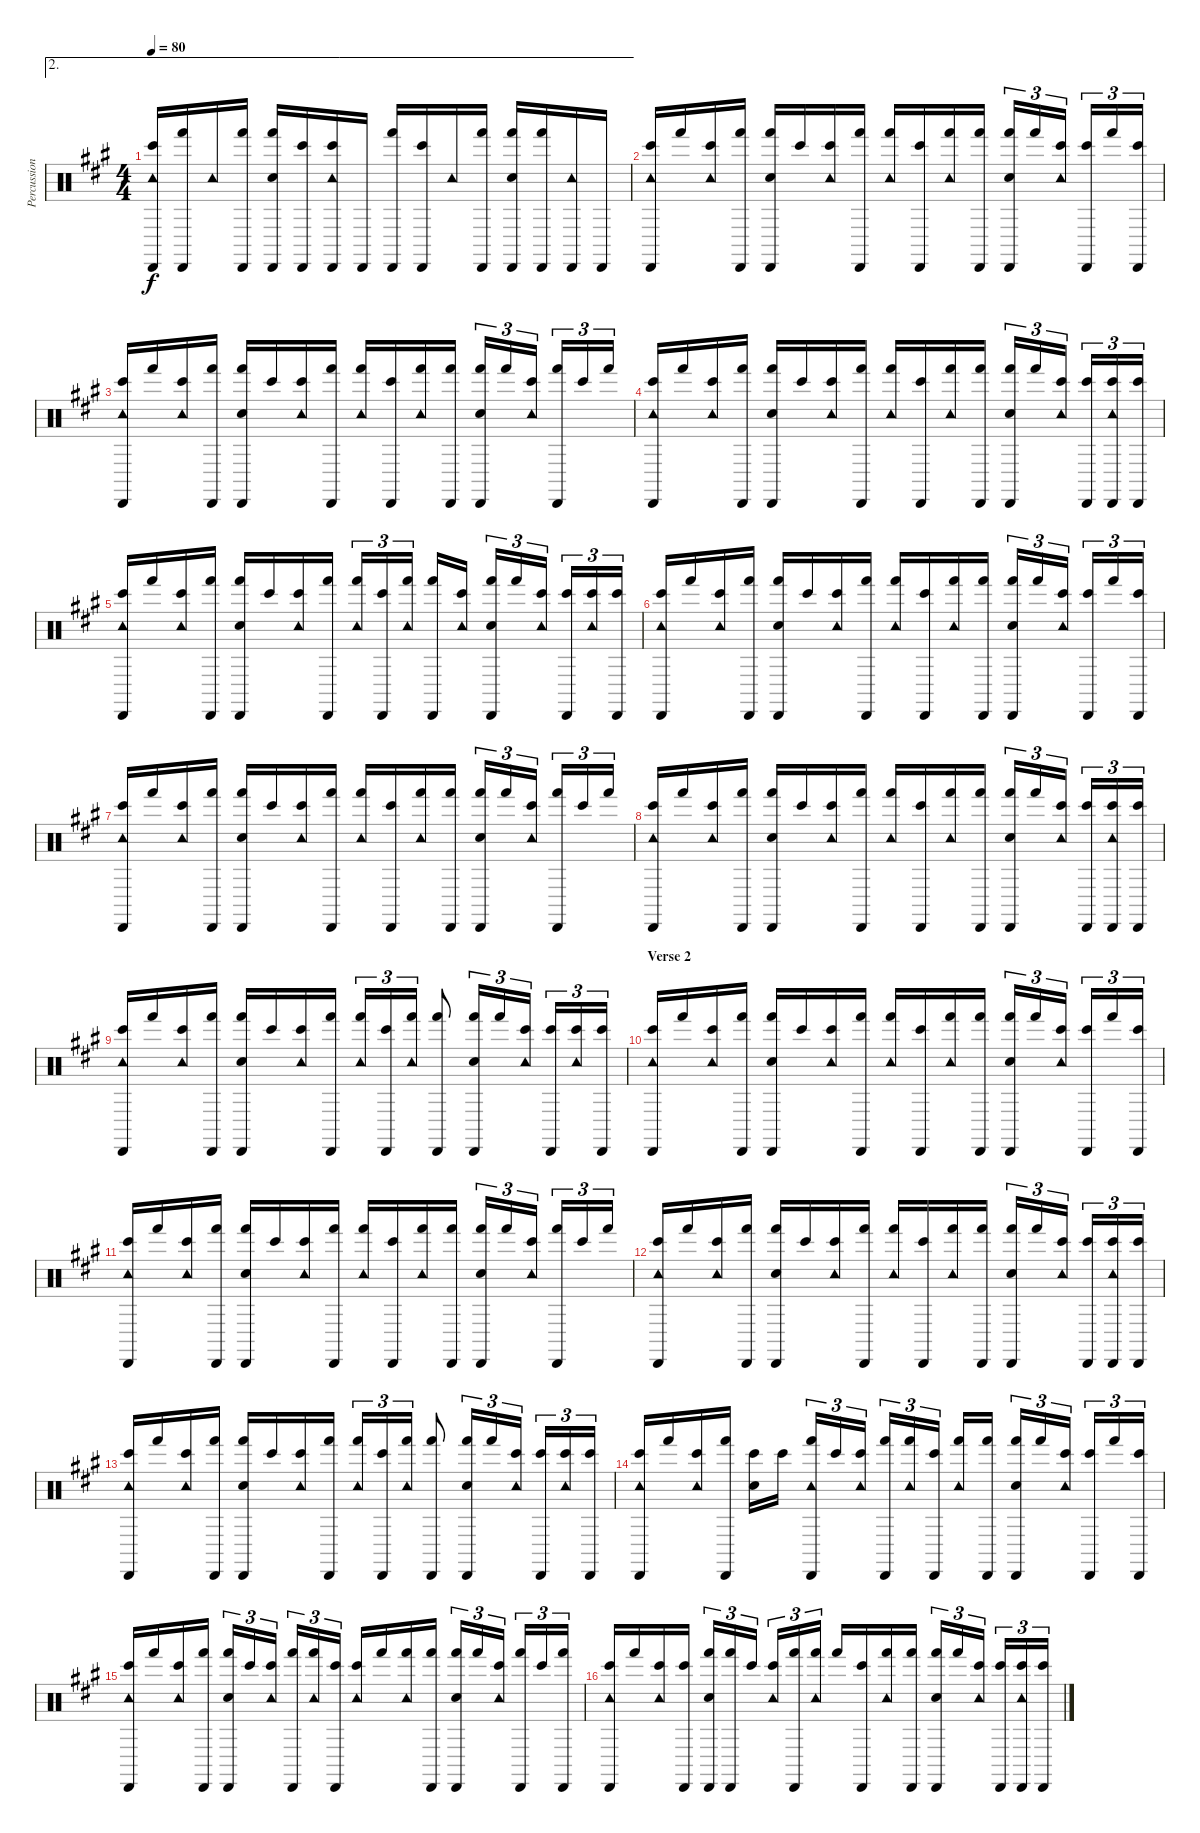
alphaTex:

\track ("Percussion" "Percussion") {instrument percussion}
\staff {score}
\articulation defaults
\ae 2
\ts (4 4)
\tempo 80
\clef neutral
\ks a
("Cabasa (hit)" "Tambourine (hit)" "Bongo High (hit)").16{dy f} ("Cabasa (hit)" "Hand (hit)").16 "Tambourine (hit)".16 ("Cabasa (hit)" "Hand (hit)").16 ("Cabasa (hit)" "Hand Clap (hit)" "Hand (hit)").16 ("Cabasa (hit)" "Bongo High (hit)").16 ("Cabasa (hit)" "Tambourine (hit)" "Bongo High (hit)").16 "Cabasa (hit)".16 ("Cabasa (hit)" "Hand (hit)").16 ("Cabasa (hit)" "Bongo High (hit)").16 "Tambourine (hit)".16 ("Cabasa (hit)" "Hand (hit)").16 ("Cabasa (hit)" "Hand Clap (hit)" "Hand (hit)").16 ("Cabasa (hit)" "Hand (hit)").16 ("Cabasa (hit)" "Tambourine (hit)").16 "Cabasa (hit)".16 |
("Cabasa (hit)" "Tambourine (hit)" "Bongo High (hit)").16 "Hand (hit)".16 ("Tambourine (hit)" "Bongo High (hit)").16 ("Cabasa (hit)" "Hand (hit)").16 ("Cabasa (hit)" "Hand Clap (hit)" "Hand (hit)").16 "Bongo High (hit)".16 ("Tambourine (hit)" "Bongo High (hit)").16 ("Cabasa (hit)" "Hand (hit)").16 ("Tambourine (hit)" "Hand (hit)").16 ("Cabasa (hit)" "Bongo High (hit)").16 ("Tambourine (hit)" "Hand (hit)").16 ("Cabasa (hit)" "Hand (hit)").16 ("Cabasa (hit)" "Hand Clap (hit)" "Hand (hit)").16{tu (3 2)} "Hand (hit)".16{tu (3 2)} ("Tambourine (hit)" "Bongo High (hit)").16{tu (3 2)} ("Cabasa (hit)" "Bongo High (hit)").16{tu (3 2)} "Hand (hit)".16{tu (3 2)} ("Cabasa (hit)" "Bongo High (hit)").16{tu (3 2)} |
("Cabasa (hit)" "Tambourine (hit)" "Bongo High (hit)").16 "Hand (hit)".16 ("Tambourine (hit)" "Bongo High (hit)").16 ("Cabasa (hit)" "Hand (hit)").16 ("Cabasa (hit)" "Hand Clap (hit)" "Hand (hit)").16 "Bongo High (hit)".16 ("Tambourine (hit)" "Bongo High (hit)").16 ("Cabasa (hit)" "Hand (hit)").16 ("Tambourine (hit)" "Hand (hit)").16 ("Cabasa (hit)" "Bongo High (hit)").16 ("Tambourine (hit)" "Hand (hit)").16 ("Cabasa (hit)" "Hand (hit)").16 ("Cabasa (hit)" "Hand Clap (hit)" "Hand (hit)").16{tu (3 2)} "Hand (hit)".16{tu (3 2)} ("Tambourine (hit)" "Bongo High (hit)").16{tu (3 2)} ("Cabasa (hit)" "Hand (hit)").16{tu (3 2)} "Bongo High (hit)".16{tu (3 2)} "Hand (hit)".16{tu (3 2)} |
("Cabasa (hit)" "Tambourine (hit)" "Bongo High (hit)").16 "Hand (hit)".16 ("Tambourine (hit)" "Bongo High (hit)").16 ("Cabasa (hit)" "Hand (hit)").16 ("Cabasa (hit)" "Hand Clap (hit)" "Hand (hit)").16 "Bongo High (hit)".16 ("Tambourine (hit)" "Bongo High (hit)").16 ("Cabasa (hit)" "Hand (hit)").16 ("Tambourine (hit)" "Hand (hit)").16 ("Cabasa (hit)" "Bongo High (hit)").16 ("Tambourine (hit)" "Hand (hit)").16 ("Cabasa (hit)" "Hand (hit)").16 ("Cabasa (hit)" "Hand Clap (hit)" "Hand (hit)").16{tu (3 2)} "Hand (hit)".16{tu (3 2)} ("Tambourine (hit)" "Bongo High (hit)").16{tu (3 2)} ("Cabasa (hit)" "Bongo High (hit)").16{tu (3 2)} ("Cabasa (hit)" "Tambourine (hit)" "Bongo High (hit)").16{tu (3 2)} ("Cabasa (hit)" "Bongo High (hit)").16{tu (3 2)} |
("Cabasa (hit)" "Tambourine (hit)" "Bongo High (hit)").16 "Hand (hit)".16 ("Tambourine (hit)" "Bongo High (hit)").16 ("Cabasa (hit)" "Hand (hit)").16 ("Cabasa (hit)" "Hand Clap (hit)" "Hand (hit)").16 "Bongo High (hit)".16 ("Tambourine (hit)" "Bongo High (hit)").16 ("Cabasa (hit)" "Hand (hit)").16 ("Tambourine (hit)" "Hand (hit)").16{tu (3 2)} ("Cabasa (hit)" "Bongo High (hit)").16{tu (3 2)} ("Tambourine (hit)" "Hand (hit)").16{tu (3 2)} ("Cabasa (hit)" "Hand (hit)").16 ("Tambourine (hit)" "Bongo High (hit)").16 ("Cabasa (hit)" "Hand Clap (hit)" "Hand (hit)").16{tu (3 2)} "Hand (hit)".16{tu (3 2)} ("Tambourine (hit)" "Bongo High (hit)").16{tu (3 2)} ("Cabasa (hit)" "Bongo High (hit)").16{tu (3 2)} ("Tambourine (hit)" "Bongo High (hit)").16{tu (3 2)} ("Cabasa (hit)" "Bongo High (hit)").16{tu (3 2)} |
("Cabasa (hit)" "Tambourine (hit)" "Bongo High (hit)").16 "Hand (hit)".16 ("Tambourine (hit)" "Bongo High (hit)").16 ("Cabasa (hit)" "Hand (hit)").16 ("Cabasa (hit)" "Hand Clap (hit)" "Hand (hit)").16 "Bongo High (hit)".16 ("Tambourine (hit)" "Bongo High (hit)").16 ("Cabasa (hit)" "Hand (hit)").16 ("Tambourine (hit)" "Hand (hit)").16 ("Cabasa (hit)" "Bongo High (hit)").16 ("Tambourine (hit)" "Hand (hit)").16 ("Cabasa (hit)" "Hand (hit)").16 ("Cabasa (hit)" "Hand Clap (hit)" "Hand (hit)").16{tu (3 2)} "Hand (hit)".16{tu (3 2)} ("Tambourine (hit)" "Bongo High (hit)").16{tu (3 2)} ("Cabasa (hit)" "Bongo High (hit)").16{tu (3 2)} "Hand (hit)".16{tu (3 2)} ("Cabasa (hit)" "Bongo High (hit)").16{tu (3 2)} |
("Cabasa (hit)" "Tambourine (hit)" "Bongo High (hit)").16 "Hand (hit)".16 ("Tambourine (hit)" "Bongo High (hit)").16 ("Cabasa (hit)" "Hand (hit)").16 ("Cabasa (hit)" "Hand Clap (hit)" "Hand (hit)").16 "Bongo High (hit)".16 ("Tambourine (hit)" "Bongo High (hit)").16 ("Cabasa (hit)" "Hand (hit)").16 ("Tambourine (hit)" "Hand (hit)").16 ("Cabasa (hit)" "Bongo High (hit)").16 ("Tambourine (hit)" "Hand (hit)").16 ("Cabasa (hit)" "Hand (hit)").16 ("Cabasa (hit)" "Hand Clap (hit)" "Hand (hit)").16{tu (3 2)} "Hand (hit)".16{tu (3 2)} ("Tambourine (hit)" "Bongo High (hit)").16{tu (3 2)} ("Cabasa (hit)" "Hand (hit)").16{tu (3 2)} "Bongo High (hit)".16{tu (3 2)} "Hand (hit)".16{tu (3 2)} |
("Cabasa (hit)" "Tambourine (hit)" "Bongo High (hit)").16 "Hand (hit)".16 ("Tambourine (hit)" "Bongo High (hit)").16 ("Cabasa (hit)" "Hand (hit)").16 ("Cabasa (hit)" "Hand Clap (hit)" "Hand (hit)").16 "Bongo High (hit)".16 ("Tambourine (hit)" "Bongo High (hit)").16 ("Cabasa (hit)" "Hand (hit)").16 ("Tambourine (hit)" "Hand (hit)").16 ("Cabasa (hit)" "Bongo High (hit)").16 ("Tambourine (hit)" "Hand (hit)").16 ("Cabasa (hit)" "Hand (hit)").16 ("Cabasa (hit)" "Hand Clap (hit)" "Hand (hit)").16{tu (3 2)} "Hand (hit)".16{tu (3 2)} ("Tambourine (hit)" "Bongo High (hit)").16{tu (3 2)} ("Cabasa (hit)" "Bongo High (hit)").16{tu (3 2)} ("Cabasa (hit)" "Tambourine (hit)" "Bongo High (hit)").16{tu (3 2)} ("Cabasa (hit)" "Bongo High (hit)").16{tu (3 2)} |
("Cabasa (hit)" "Tambourine (hit)" "Bongo High (hit)").16 "Hand (hit)".16 ("Tambourine (hit)" "Bongo High (hit)").16 ("Cabasa (hit)" "Hand (hit)").16 ("Cabasa (hit)" "Hand Clap (hit)" "Hand (hit)").16 "Bongo High (hit)".16 ("Tambourine (hit)" "Bongo High (hit)").16 ("Cabasa (hit)" "Hand (hit)").16 ("Tambourine (hit)" "Hand (hit)").16{tu (3 2)} ("Cabasa (hit)" "Bongo High (hit)").16{tu (3 2)} ("Tambourine (hit)" "Hand (hit)").16{tu (3 2)} ("Cabasa (hit)" "Hand (hit)").8 ("Cabasa (hit)" "Hand Clap (hit)" "Hand (hit)").16{tu (3 2)} "Hand (hit)".16{tu (3 2)} ("Tambourine (hit)" "Bongo High (hit)").16{tu (3 2)} ("Cabasa (hit)" "Bongo High (hit)").16{tu (3 2)} ("Tambourine (hit)" "Bongo High (hit)").16{tu (3 2)} ("Cabasa (hit)" "Bongo High (hit)").16{tu (3 2)} |
\section ("" "Verse 2")
("Cabasa (hit)" "Tambourine (hit)" "Bongo High (hit)").16 "Hand (hit)".16 ("Tambourine (hit)" "Bongo High (hit)").16 ("Cabasa (hit)" "Hand (hit)").16 ("Cabasa (hit)" "Hand Clap (hit)" "Hand (hit)").16 "Bongo High (hit)".16 ("Tambourine (hit)" "Bongo High (hit)").16 ("Cabasa (hit)" "Hand (hit)").16 ("Tambourine (hit)" "Hand (hit)").16 ("Cabasa (hit)" "Bongo High (hit)").16 ("Tambourine (hit)" "Hand (hit)").16 ("Cabasa (hit)" "Hand (hit)").16 ("Cabasa (hit)" "Hand Clap (hit)" "Hand (hit)").16{tu (3 2)} "Hand (hit)".16{tu (3 2)} ("Tambourine (hit)" "Bongo High (hit)").16{tu (3 2)} ("Cabasa (hit)" "Bongo High (hit)").16{tu (3 2)} "Hand (hit)".16{tu (3 2)} ("Cabasa (hit)" "Bongo High (hit)").16{tu (3 2)} |
("Cabasa (hit)" "Tambourine (hit)" "Bongo High (hit)").16 "Hand (hit)".16 ("Tambourine (hit)" "Bongo High (hit)").16 ("Cabasa (hit)" "Hand (hit)").16 ("Cabasa (hit)" "Hand Clap (hit)" "Hand (hit)").16 "Bongo High (hit)".16 ("Tambourine (hit)" "Bongo High (hit)").16 ("Cabasa (hit)" "Hand (hit)").16 ("Tambourine (hit)" "Hand (hit)").16 ("Cabasa (hit)" "Bongo High (hit)").16 ("Tambourine (hit)" "Hand (hit)").16 ("Cabasa (hit)" "Hand (hit)").16 ("Cabasa (hit)" "Hand Clap (hit)" "Hand (hit)").16{tu (3 2)} "Hand (hit)".16{tu (3 2)} ("Tambourine (hit)" "Bongo High (hit)").16{tu (3 2)} ("Cabasa (hit)" "Hand (hit)").16{tu (3 2)} "Bongo High (hit)".16{tu (3 2)} "Hand (hit)".16{tu (3 2)} |
("Cabasa (hit)" "Tambourine (hit)" "Bongo High (hit)").16 "Hand (hit)".16 ("Tambourine (hit)" "Bongo High (hit)").16 ("Cabasa (hit)" "Hand (hit)").16 ("Cabasa (hit)" "Hand Clap (hit)" "Hand (hit)").16 "Bongo High (hit)".16 ("Tambourine (hit)" "Bongo High (hit)").16 ("Cabasa (hit)" "Hand (hit)").16 ("Tambourine (hit)" "Hand (hit)").16 ("Cabasa (hit)" "Bongo High (hit)").16 ("Tambourine (hit)" "Hand (hit)").16 ("Cabasa (hit)" "Hand (hit)").16 ("Cabasa (hit)" "Hand Clap (hit)" "Hand (hit)").16{tu (3 2)} "Hand (hit)".16{tu (3 2)} ("Tambourine (hit)" "Bongo High (hit)").16{tu (3 2)} ("Cabasa (hit)" "Bongo High (hit)").16{tu (3 2)} ("Cabasa (hit)" "Tambourine (hit)" "Bongo High (hit)").16{tu (3 2)} ("Cabasa (hit)" "Bongo High (hit)").16{tu (3 2)} |
("Cabasa (hit)" "Tambourine (hit)" "Bongo High (hit)").16 "Hand (hit)".16 ("Tambourine (hit)" "Bongo High (hit)").16 ("Cabasa (hit)" "Hand (hit)").16 ("Cabasa (hit)" "Hand Clap (hit)" "Hand (hit)").16 "Bongo High (hit)".16 ("Tambourine (hit)" "Bongo High (hit)").16 ("Cabasa (hit)" "Hand (hit)").16 ("Tambourine (hit)" "Hand (hit)").16{tu (3 2)} ("Cabasa (hit)" "Bongo High (hit)").16{tu (3 2)} ("Tambourine (hit)" "Hand (hit)").16{tu (3 2)} ("Cabasa (hit)" "Hand (hit)").8 ("Cabasa (hit)" "Hand Clap (hit)" "Hand (hit)").16{tu (3 2)} "Hand (hit)".16{tu (3 2)} ("Tambourine (hit)" "Bongo High (hit)").16{tu (3 2)} ("Cabasa (hit)" "Bongo High (hit)").16{tu (3 2)} ("Tambourine (hit)" "Bongo High (hit)").16{tu (3 2)} ("Cabasa (hit)" "Bongo High (hit)").16{tu (3 2)} |
("Cabasa (hit)" "Tambourine (hit)" "Bongo High (hit)").16 "Hand (hit)".16 ("Tambourine (hit)" "Bongo High (hit)").16 ("Cabasa (hit)" "Hand (hit)").16 ("Hand Clap (hit)" "Bongo High (hit)").16 "Bongo High (hit)".16 ("Cabasa (hit)" "Tambourine (hit)" "Hand (hit)").16{tu (3 2)} "Bongo High (hit)".16{tu (3 2)} ("Tambourine (hit)" "Bongo High (hit)").16{tu (3 2)} ("Cabasa (hit)" "Hand (hit)").16{tu (3 2)} ("Tambourine (hit)" "Hand (hit)").16{tu (3 2)} ("Cabasa (hit)" "Bongo High (hit)").16{tu (3 2)} ("Tambourine (hit)" "Hand (hit)").16 ("Cabasa (hit)" "Hand (hit)").16 ("Cabasa (hit)" "Hand Clap (hit)" "Hand (hit)").16{tu (3 2)} "Hand (hit)".16{tu (3 2)} ("Tambourine (hit)" "Bongo High (hit)").16{tu (3 2)} ("Cabasa (hit)" "Bongo High (hit)").16{tu (3 2)} "Hand (hit)".16{tu (3 2)} ("Cabasa (hit)" "Bongo High (hit)").16{tu (3 2)} |
("Cabasa (hit)" "Tambourine (hit)" "Bongo High (hit)").16 "Hand (hit)".16 ("Tambourine (hit)" "Bongo High (hit)").16 ("Cabasa (hit)" "Hand (hit)").16 ("Cabasa (hit)" "Hand Clap (hit)" "Hand (hit)").16{tu (3 2)} "Bongo High (hit)".16{tu (3 2)} ("Tambourine (hit)" "Bongo High (hit)").16{tu (3 2)} ("Cabasa (hit)" "Hand (hit)").16{tu (3 2)} ("Tambourine (hit)" "Hand (hit)").16{tu (3 2)} ("Cabasa (hit)" "Bongo High (hit)").16{tu (3 2)} ("Tambourine (hit)" "Bongo High (hit)").16 "Hand (hit)".16 ("Tambourine (hit)" "Hand (hit)").16 ("Cabasa (hit)" "Hand (hit)").16 ("Cabasa (hit)" "Hand Clap (hit)" "Hand (hit)").16{tu (3 2)} "Hand (hit)".16{tu (3 2)} ("Tambourine (hit)" "Bongo High (hit)").16{tu (3 2)} ("Cabasa (hit)" "Hand (hit)").16{tu (3 2)} "Bongo High (hit)".16{tu (3 2)} ("Cabasa (hit)" "Hand (hit)").16{tu (3 2)} |
("Cabasa (hit)" "Tambourine (hit)" "Bongo High (hit)").16 "Hand (hit)".16 ("Tambourine (hit)" "Bongo High (hit)").16 ("Cabasa (hit)" "Bongo High (hit)").16 ("Cabasa (hit)" "Hand Clap (hit)" "Hand (hit)").16{tu (3 2)} ("Cabasa (hit)" "Hand (hit)").16{tu (3 2)} "Bongo High (hit)".16{tu (3 2)} ("Tambourine (hit)" "Bongo High (hit)").16{tu (3 2)} ("Cabasa (hit)" "Hand (hit)").16{tu (3 2)} ("Tambourine (hit)" "Hand (hit)").16{tu (3 2)} "Hand (hit)".16 ("Cabasa (hit)" "Bongo High (hit)").16 ("Tambourine (hit)" "Hand (hit)").16 ("Cabasa (hit)" "Hand (hit)").16 ("Cabasa (hit)" "Hand Clap (hit)" "Hand (hit)").16{tu (3 2)} "Hand (hit)".16{tu (3 2)} ("Tambourine (hit)" "Bongo High (hit)").16{tu (3 2)} ("Cabasa (hit)" "Bongo High (hit)").16{tu (3 2)} ("Cabasa (hit)" "Tambourine (hit)" "Bongo High (hit)").16{tu (3 2)} ("Cabasa (hit)" "Bongo High (hit)").16{tu (3 2)}
